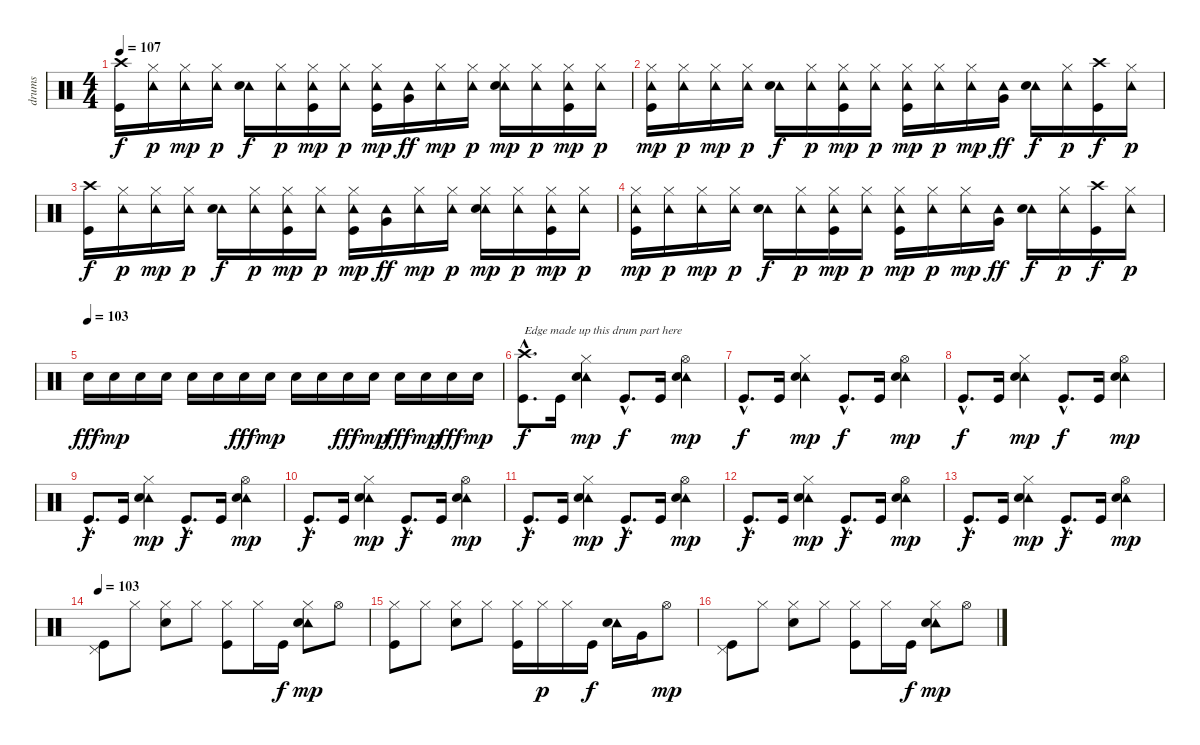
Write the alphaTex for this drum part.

\track ("drums" "drums") {instrument percussion}
\staff {score}
\articulation defaults
\ts (4 4)
\tempo 107
\clef neutral
\ks c
("Crash high (hit)" "Kick (hit)").16{dy f} ("Tambourine (hit)" "Hi-Hat (closed)").16{dy p} ("Tambourine (hit)" "Hi-Hat (closed)").16{dy mp} ("Tambourine (hit)" "Hi-Hat (closed)").16{dy p} ("Tambourine (hit)" "Electric Snare (hit)").16{dy f} ("Tambourine (hit)" "Hi-Hat (closed)").16{dy p} ("Tambourine (hit)" "Hi-Hat (closed)" "Kick (hit)").16{dy mp} ("Tambourine (hit)" "Hi-Hat (closed)").16{dy p} ("Tambourine (hit)" "Hi-Hat (closed)" "Kick (hit)").16{dy mp} ("Tambourine (hit)" "Very Low Tom (hit)").16{dy ff} ("Tambourine (hit)" "Hi-Hat (closed)").16{dy mp} ("Tambourine (hit)" "Hi-Hat (closed)").16{dy p} ("Tambourine (hit)" "Hi-Hat (closed)" "Electric Snare (hit)").16{dy mp} ("Tambourine (hit)" "Hi-Hat (closed)").16{dy p} ("Tambourine (hit)" "Hi-Hat (closed)" "Kick (hit)").16{dy mp} ("Tambourine (hit)" "Hi-Hat (closed)").16{dy p} |
("Tambourine (hit)" "Hi-Hat (closed)" "Kick (hit)").16{dy mp} ("Tambourine (hit)" "Hi-Hat (closed)").16{dy p} ("Tambourine (hit)" "Hi-Hat (closed)").16{dy mp} ("Tambourine (hit)" "Hi-Hat (closed)").16{dy p} ("Tambourine (hit)" "Electric Snare (hit)").16{dy f} ("Tambourine (hit)" "Hi-Hat (closed)").16{dy p} ("Tambourine (hit)" "Hi-Hat (closed)" "Kick (hit)").16{dy mp} ("Tambourine (hit)" "Hi-Hat (closed)").16{dy p} ("Tambourine (hit)" "Hi-Hat (closed)" "Kick (hit)").16{dy mp} ("Tambourine (hit)" "Hi-Hat (closed)").16{dy p} ("Tambourine (hit)" "Hi-Hat (closed)").16{dy mp} ("Tambourine (hit)" "Very Low Tom (hit)").16{dy ff} ("Tambourine (hit)" "Electric Snare (hit)").16{dy f} ("Tambourine (hit)" "Hi-Hat (closed)").16{dy p} ("Crash high (hit)" "Kick (hit)").16{dy f} ("Tambourine (hit)" "Hi-Hat (closed)").16{dy p} |
("Crash high (hit)" "Kick (hit)").16{dy f} ("Tambourine (hit)" "Hi-Hat (closed)").16{dy p} ("Tambourine (hit)" "Hi-Hat (closed)").16{dy mp} ("Tambourine (hit)" "Hi-Hat (closed)").16{dy p} ("Tambourine (hit)" "Electric Snare (hit)").16{dy f} ("Tambourine (hit)" "Hi-Hat (closed)").16{dy p} ("Tambourine (hit)" "Hi-Hat (closed)" "Kick (hit)").16{dy mp} ("Tambourine (hit)" "Hi-Hat (closed)").16{dy p} ("Tambourine (hit)" "Hi-Hat (closed)" "Kick (hit)").16{dy mp} ("Tambourine (hit)" "Very Low Tom (hit)").16{dy ff} ("Tambourine (hit)" "Hi-Hat (closed)").16{dy mp} ("Tambourine (hit)" "Hi-Hat (closed)").16{dy p} ("Tambourine (hit)" "Hi-Hat (closed)" "Electric Snare (hit)").16{dy mp} ("Tambourine (hit)" "Hi-Hat (closed)").16{dy p} ("Tambourine (hit)" "Hi-Hat (closed)" "Kick (hit)").16{dy mp} ("Tambourine (hit)" "Hi-Hat (closed)").16{dy p} |
("Tambourine (hit)" "Hi-Hat (closed)" "Kick (hit)").16{dy mp} ("Tambourine (hit)" "Hi-Hat (closed)").16{dy p} ("Tambourine (hit)" "Hi-Hat (closed)").16{dy mp} ("Tambourine (hit)" "Hi-Hat (closed)").16{dy p} ("Tambourine (hit)" "Electric Snare (hit)").16{dy f} ("Tambourine (hit)" "Hi-Hat (closed)").16{dy p} ("Tambourine (hit)" "Hi-Hat (closed)" "Kick (hit)").16{dy mp} ("Tambourine (hit)" "Hi-Hat (closed)").16{dy p} ("Tambourine (hit)" "Hi-Hat (closed)" "Kick (hit)").16{dy mp} ("Tambourine (hit)" "Hi-Hat (closed)").16{dy p} ("Tambourine (hit)" "Hi-Hat (closed)").16{dy mp} ("Tambourine (hit)" "Very Low Tom (hit)").16{dy ff} ("Tambourine (hit)" "Electric Snare (hit)").16{dy f} ("Tambourine (hit)" "Hi-Hat (closed)").16{dy p} ("Crash high (hit)" "Kick (hit)").16{dy f} ("Tambourine (hit)" "Hi-Hat (closed)").16{dy p} |
\tempo (103)
"Electric Snare (hit)".16{dy fff} "Electric Snare (hit)".16{dy mp} "Electric Snare (hit)".16 "Electric Snare (hit)".16 "Electric Snare (hit)".16 "Electric Snare (hit)".16 "Electric Snare (hit)".16{dy fff} "Electric Snare (hit)".16{dy mp} "Electric Snare (hit)".16 "Electric Snare (hit)".16 "Electric Snare (hit)".16{dy fff} "Electric Snare (hit)".16{dy mp} "Electric Snare (hit)".16{dy fff} "Electric Snare (hit)".16{dy mp} "Electric Snare (hit)".16{dy fff} "Electric Snare (hit)".16{dy mp} |
("Crash high (hit)"{hac} "Kick (hit)"{hac}).8{d txt "Edge made up this drum part here" dy f} "Kick (hit)".16 ("Tambourine (hit)" "Hi-Hat (closed)" "Electric Snare (hit)").4{dy mp} "Kick (hit)"{hac}.8{d dy f} "Kick (hit)".16 ("Tambourine (hit)" "Hi-Hat (open)" "Electric Snare (hit)").4{dy mp} |
"Kick (hit)"{hac}.8{d dy f} "Kick (hit)".16 ("Tambourine (hit)" "Hi-Hat (closed)" "Electric Snare (hit)").4{dy mp} "Kick (hit)"{hac}.8{d dy f} "Kick (hit)".16 ("Tambourine (hit)" "Hi-Hat (open)" "Electric Snare (hit)").4{dy mp} |
"Kick (hit)"{hac}.8{d dy f} "Kick (hit)".16 ("Tambourine (hit)" "Hi-Hat (closed)" "Electric Snare (hit)").4{dy mp} "Kick (hit)"{hac}.8{d dy f} "Kick (hit)".16 ("Tambourine (hit)" "Hi-Hat (open)" "Electric Snare (hit)").4{dy mp} |
"Kick (hit)"{hac}.8{d dy f} "Kick (hit)".16 ("Tambourine (hit)" "Hi-Hat (closed)" "Electric Snare (hit)").4{dy mp} "Kick (hit)"{hac}.8{d dy f} "Kick (hit)".16 ("Tambourine (hit)" "Hi-Hat (open)" "Electric Snare (hit)").4{dy mp} |
"Kick (hit)"{hac}.8{d dy f} "Kick (hit)".16 ("Tambourine (hit)" "Hi-Hat (closed)" "Electric Snare (hit)").4{dy mp} "Kick (hit)"{hac}.8{d dy f} "Kick (hit)".16 ("Tambourine (hit)" "Hi-Hat (open)" "Electric Snare (hit)").4{dy mp} |
"Kick (hit)"{hac}.8{d dy f} "Kick (hit)".16 ("Tambourine (hit)" "Hi-Hat (closed)" "Electric Snare (hit)").4{dy mp} "Kick (hit)"{hac}.8{d dy f} "Kick (hit)".16 ("Tambourine (hit)" "Hi-Hat (open)" "Electric Snare (hit)").4{dy mp} |
"Kick (hit)"{hac}.8{d dy f} "Kick (hit)".16 ("Tambourine (hit)" "Hi-Hat (closed)" "Electric Snare (hit)").4{dy mp} "Kick (hit)"{hac}.8{d dy f} "Kick (hit)".16 ("Tambourine (hit)" "Hi-Hat (open)" "Electric Snare (hit)").4{dy mp} |
"Kick (hit)"{hac}.8{d dy f} "Kick (hit)".16 ("Tambourine (hit)" "Hi-Hat (closed)" "Electric Snare (hit)").4{dy mp} "Kick (hit)"{hac}.8{d dy f} "Kick (hit)".16 ("Tambourine (hit)" "Hi-Hat (open)" "Electric Snare (hit)").4{dy mp} |
\tempo 103
("Pedal Hi-Hat (hit)" "Kick (hit)").8 "Hi-Hat (closed)".8 ("Hi-Hat (closed)" "Electric Snare (hit)").8 "Hi-Hat (closed)".8 ("Hi-Hat (closed)" "Kick (hit)").8 "Hi-Hat (closed)".16 "Kick (hit)".16{dy f} ("Tambourine (hit)" "Hi-Hat (closed)" "Electric Snare (hit)").8{dy mp} "Hi-Hat (open)".8 |
("Hi-Hat (closed)" "Kick (hit)").8 "Hi-Hat (closed)".8 ("Hi-Hat (closed)" "Electric Snare (hit)").8 "Hi-Hat (closed)".8 ("Hi-Hat (closed)" "Kick (hit)").16 "Hi-Hat (closed)".16{dy p} "Hi-Hat (closed)".16 "Kick (hit)".16{dy f} ("Tambourine (hit)" "Electric Snare (hit)").16 "Very Low Tom (hit)".16 "Hi-Hat (open)".8{dy mp} |
("Pedal Hi-Hat (hit)" "Kick (hit)").8 "Hi-Hat (closed)".8 ("Hi-Hat (closed)" "Electric Snare (hit)").8 "Hi-Hat (closed)".8 ("Hi-Hat (closed)" "Kick (hit)").8 "Hi-Hat (closed)".16 "Kick (hit)".16{dy f} ("Tambourine (hit)" "Hi-Hat (closed)" "Electric Snare (hit)").8{dy mp} "Hi-Hat (open)".8
